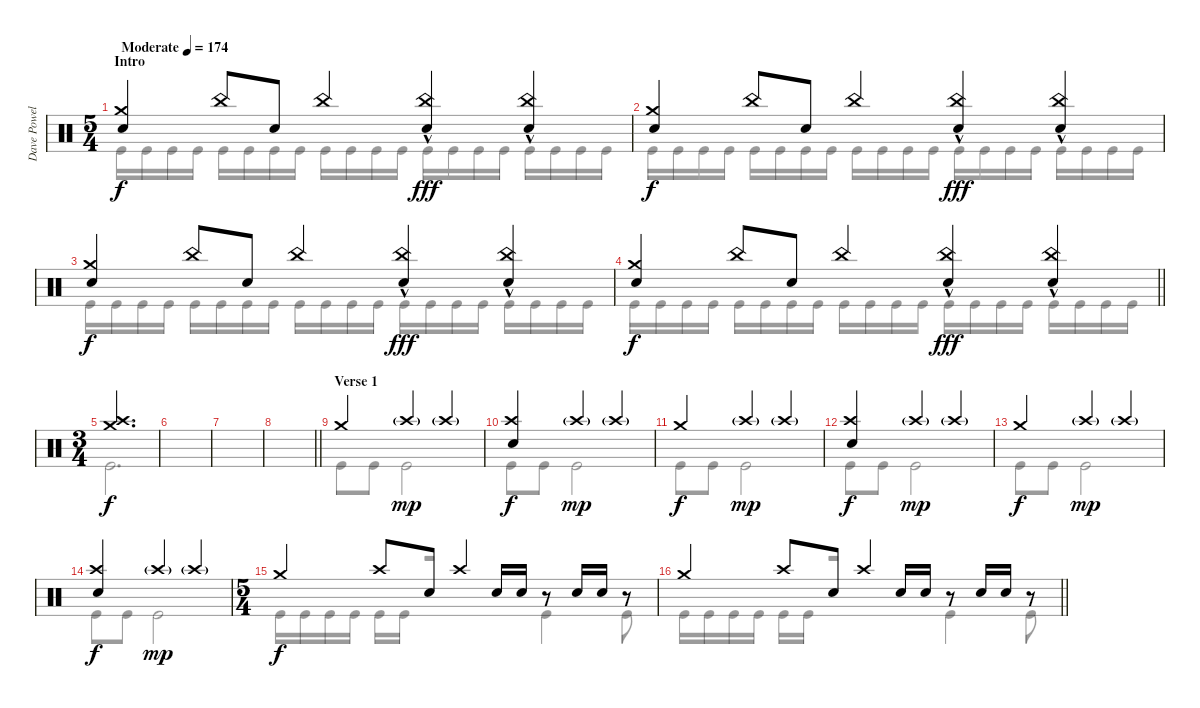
\track ("Dave Powell" "Dave Powel") {instrument percussion}
\staff {score}
\articulation defaults
\voice
\ts (5 4)
\section ("" "Intro")
\tempo (174 "Moderate")
\clef neutral
\ks c
("Crash medium (hit)" "Electric Snare (hit)").4{dy f} "China (hit)".8 "Electric Snare (hit)".8 "China (hit)".4 ("China (hit)"{hac} "Electric Snare (hit)").4{dy fff} ("China (hit)"{hac} "Electric Snare (hit)").4 |
("Crash medium (hit)" "Electric Snare (hit)").4{dy f} "China (hit)".8 "Electric Snare (hit)".8 "China (hit)".4 ("China (hit)"{hac} "Electric Snare (hit)").4{dy fff} ("China (hit)"{hac} "Electric Snare (hit)").4 |
("Crash medium (hit)" "Electric Snare (hit)").4{dy f} "China (hit)".8 "Electric Snare (hit)".8 "China (hit)".4 ("China (hit)"{hac} "Electric Snare (hit)").4{dy fff} ("China (hit)"{hac} "Electric Snare (hit)").4 |
\barLineRight lightlight
("Crash medium (hit)" "Electric Snare (hit)").4{dy f} "China (hit)".8 "Electric Snare (hit)".8 "China (hit)".4 ("China (hit)"{hac} "Electric Snare (hit)").4{dy fff} ("China (hit)"{hac} "Electric Snare (hit)").4 |
\ts (3 4)
\section ("" "")
("Crash medium (hit)" "Crash high (hit)").2{d dy f} |
|
|
\barLineRight lightlight
|
\section ("" "Verse 1")
"Crash medium (hit)".4 "Crash high (hit)"{g}.4{dy mp} "Crash high (hit)"{g}.4 |
("Crash high (hit)" "Electric Snare (hit)").4{dy f} "Crash high (hit)"{g}.4{dy mp} "Crash high (hit)"{g}.4 |
"Crash medium (hit)".4{dy f} "Crash high (hit)"{g}.4{dy mp} "Crash high (hit)"{g}.4 |
("Crash high (hit)" "Electric Snare (hit)").4{dy f} "Crash high (hit)"{g}.4{dy mp} "Crash high (hit)"{g}.4 |
"Crash medium (hit)".4{dy f} "Crash high (hit)"{g}.4{dy mp} "Crash high (hit)"{g}.4 |
("Crash high (hit)" "Electric Snare (hit)").4{dy f} "Crash high (hit)"{g}.4{dy mp} "Crash high (hit)"{g}.4 |
\ts (5 4)
"Crash medium (hit)".4{dy f} "Crash high (hit)".8 "Electric Snare (hit)".8 "Crash high (hit)".4 "Electric Snare (hit)".16 "Electric Snare (hit)".16 r.8 "Electric Snare (hit)".16 "Electric Snare (hit)".16 r.8 |
\barLineRight lightlight "Crash medium (hit)".4 "Crash high (hit)".8 "Electric Snare (hit)".8 "Crash high (hit)".4 "Electric Snare (hit)".16 "Electric Snare (hit)".16
r.8 "Electric Snare (hit)".16 "Electric Snare (hit)".16 r.8
\voice
\clef neutral
\ottava regular
\simile none
\ks c "Kick (hit)".16{dy f} "Kick (hit)".16 "Kick (hit)".16 "Kick (hit)".16 "Kick (hit)".16 "Kick (hit)".16 "Kick (hit)".16 "Kick (hit)".16 "Kick (hit)".16 "Kick (hit)".16 "Kick (hit)".16 "Kick (hit)".16 "Kick (hit)".16 "Kick (hit)".16 "Kick (hit)".16 "Kick (hit)".16 "Kick (hit)".16 "Kick (hit)".16 "Kick (hit)".16 "Kick (hit)".16
|
"Kick (hit)".16 "Kick (hit)".16 "Kick (hit)".16 "Kick (hit)".16 "Kick (hit)".16 "Kick (hit)".16 "Kick (hit)".16 "Kick (hit)".16 "Kick (hit)".16 "Kick (hit)".16 "Kick (hit)".16 "Kick (hit)".16 "Kick (hit)".16 "Kick (hit)".16 "Kick (hit)".16 "Kick (hit)".16 "Kick (hit)".16 "Kick (hit)".16 "Kick (hit)".16 "Kick (hit)".16 |
"Kick (hit)".16 "Kick (hit)".16 "Kick (hit)".16 "Kick (hit)".16 "Kick (hit)".16 "Kick (hit)".16 "Kick (hit)".16 "Kick (hit)".16 "Kick (hit)".16 "Kick (hit)".16 "Kick (hit)".16 "Kick (hit)".16 "Kick (hit)".16 "Kick (hit)".16 "Kick (hit)".16 "Kick (hit)".16 "Kick (hit)".16 "Kick (hit)".16 "Kick (hit)".16 "Kick (hit)".16 |
\barLineRight lightlight "Kick (hit)".16 "Kick (hit)".16 "Kick (hit)".16 "Kick (hit)".16 "Kick (hit)".16 "Kick (hit)".16 "Kick (hit)".16 "Kick (hit)".16 "Kick (hit)".16 "Kick (hit)".16 "Kick (hit)".16 "Kick (hit)".16 "Kick (hit)".16 "Kick (hit)".16 "Kick (hit)".16 "Kick (hit)".16 "Kick (hit)".16 "Kick (hit)".16 "Kick (hit)".16 "Kick (hit)".16
|
"Kick (hit)".2{d} |
|
|
\barLineRight lightlight
|
"Kick (hit)".8 "Kick (hit)".8 "Kick (hit)".2 |
"Kick (hit)".8 "Kick (hit)".8 "Kick (hit)".2 |
"Kick (hit)".8 "Kick (hit)".8 "Kick (hit)".2 |
"Kick (hit)".8 "Kick (hit)".8 "Kick (hit)".2 |
"Kick (hit)".8 "Kick (hit)".8 "Kick (hit)".2 |
"Kick (hit)".8 "Kick (hit)".8 "Kick (hit)".2 |
"Kick (hit)".16 "Kick (hit)".16 "Kick (hit)".16 "Kick (hit)".16 "Kick (hit)".16 "Kick (hit)".16 r.2 "Kick (hit)".4 "Kick (hit)".8 |
\barLineRight lightlight "Kick (hit)".16 "Kick (hit)".16 "Kick (hit)".16 "Kick (hit)".16 "Kick (hit)".16 "Kick (hit)".16
r.2 "Kick (hit)".4 "Kick (hit)".8
